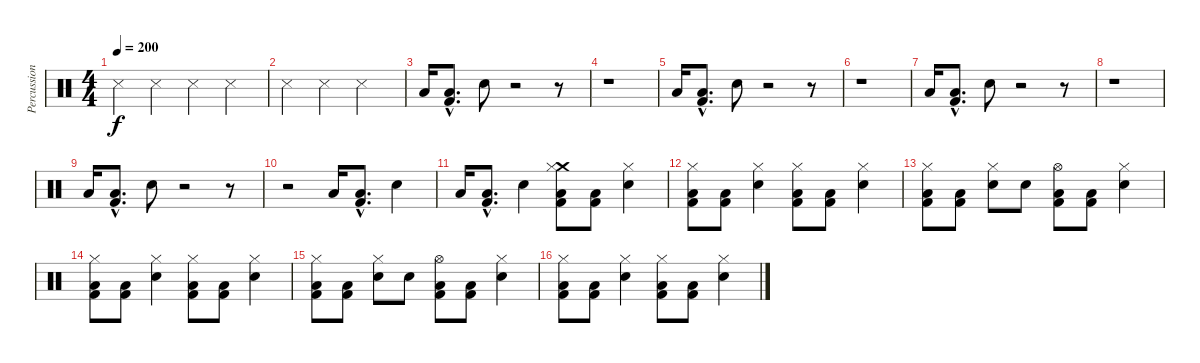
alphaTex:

\track ("Percussions" "Percussion") {instrument percussion}
\staff {score}
\articulation defaults
\ts (4 4)
\tempo 200
\clef neutral
\ks c "Metronome (hit)".4{dy f} "Metronome (hit)".4 "Metronome (hit)".4 "Metronome (hit)".4
|
"Metronome (hit)".4 "Metronome (hit)".4 "Metronome (hit)".2 |
"Low Tom (hit)".16 ("Kick (hit) 2"{hac} "Low Floor Tom (hit)"{hac}).8{d} "Snare (hit) 2".8 r.2 r.8 |
r.1 |
"Low Tom (hit)".16 ("Kick (hit) 2"{hac} "Low Floor Tom (hit)"{hac}).8{d} "Snare (hit) 2".8 r.2 r.8 |
r.1 |
"Low Tom (hit)".16 ("Kick (hit) 2"{hac} "Low Floor Tom (hit)"{hac}).8{d} "Snare (hit) 2".8 r.2 r.8 |
r.1 |
"Low Tom (hit)".16 ("Kick (hit) 2"{hac} "Low Floor Tom (hit)"{hac}).8{d} "Snare (hit) 2".8 r.2 r.8 |
r.2 "Low Tom (hit)".16 ("Kick (hit) 2"{hac} "Low Floor Tom (hit)"{hac}).8{d} "Snare (hit) 2".4 |
"Low Tom (hit)".16 ("Kick (hit) 2"{hac} "Low Floor Tom (hit)"{hac}).8{d} "Snare (hit) 2".4 ("Kick (hit) 2" "Low Floor Tom (hit)" "Crash medium (hit)" "Hi-Hat (closed)").8 ("Kick (hit) 2" "Low Floor Tom (hit)").8 ("Snare (hit) 2" "Hi-Hat (closed)").4 |
("Kick (hit) 2" "Low Floor Tom (hit)" "Hi-Hat (closed)").8 ("Kick (hit) 2" "Low Floor Tom (hit)").8 ("Snare (hit) 2" "Hi-Hat (closed)").4 ("Kick (hit) 2" "Low Floor Tom (hit)" "Hi-Hat (closed)").8 ("Kick (hit) 2" "Low Floor Tom (hit)").8 ("Snare (hit) 2" "Hi-Hat (closed)").4 |
("Kick (hit) 2" "Low Floor Tom (hit)" "Hi-Hat (closed)").8 ("Kick (hit) 2" "Low Floor Tom (hit)").8 ("Snare (hit) 2" "Hi-Hat (closed)").8 "Snare (hit) 2".8 ("Kick (hit) 2" "Low Floor Tom (hit)" "Hi-Hat (open)").8 ("Kick (hit) 2" "Low Floor Tom (hit)").8 ("Snare (hit) 2" "Hi-Hat (closed)").4 |
("Kick (hit) 2" "Low Floor Tom (hit)" "Hi-Hat (closed)").8 ("Kick (hit) 2" "Low Floor Tom (hit)").8 ("Snare (hit) 2" "Hi-Hat (closed)").4 ("Kick (hit) 2" "Low Floor Tom (hit)" "Hi-Hat (closed)").8 ("Kick (hit) 2" "Low Floor Tom (hit)").8 ("Snare (hit) 2" "Hi-Hat (closed)").4 |
("Kick (hit) 2" "Low Floor Tom (hit)" "Hi-Hat (closed)").8 ("Kick (hit) 2" "Low Floor Tom (hit)").8 ("Snare (hit) 2" "Hi-Hat (closed)").8 "Snare (hit) 2".8 ("Kick (hit) 2" "Low Floor Tom (hit)" "Hi-Hat (open)").8 ("Kick (hit) 2" "Low Floor Tom (hit)").8 ("Snare (hit) 2" "Hi-Hat (closed)").4 |
("Kick (hit) 2" "Low Floor Tom (hit)" "Hi-Hat (closed)").8 ("Kick (hit) 2" "Low Floor Tom (hit)").8 ("Snare (hit) 2" "Hi-Hat (closed)").4 ("Kick (hit) 2" "Low Floor Tom (hit)" "Hi-Hat (closed)").8 ("Kick (hit) 2" "Low Floor Tom (hit)").8 ("Snare (hit) 2" "Hi-Hat (closed)").4
